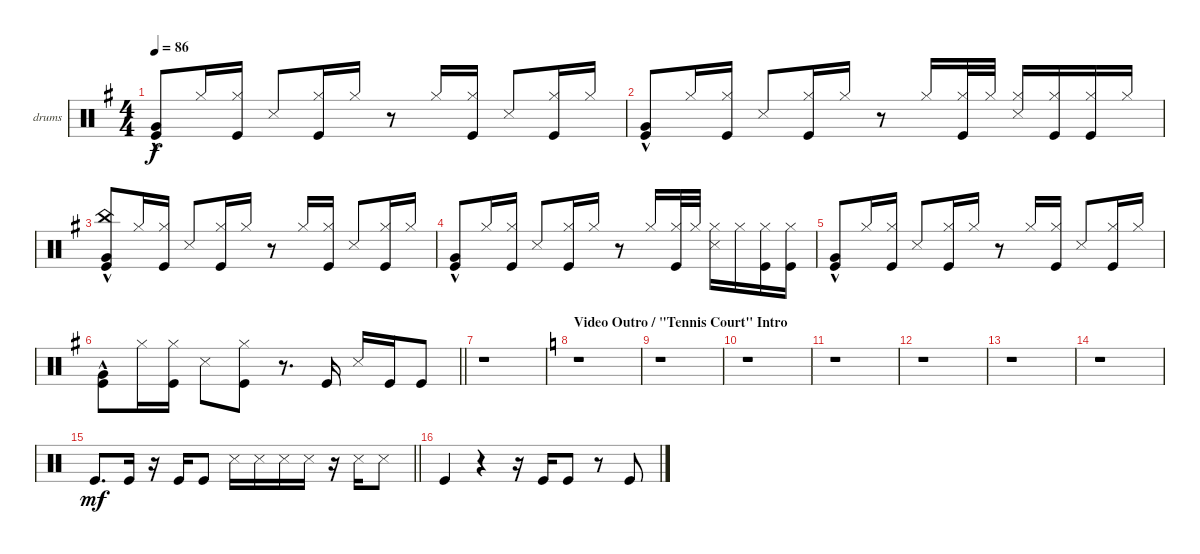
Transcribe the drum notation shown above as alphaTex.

\defaultSystemsLayout 4
\bracketExtendMode groupsimilarinstruments
\firstSystemTrackNameOrientation horizontal
\otherSystemsTrackNameOrientation horizontal
\track ("drums" "drums") {instrument percussion}
\staff {score}
\articulation defaults
\ts (4 4)
\tempo 86
\clef neutral
\ks g
("Kick (hit)" "Very Low Tom (hit)"{hac}).8{dy f} "Hi-Hat (closed)".16 ("Kick (hit)" "Hi-Hat (closed)").16 "Snare (side stick) 3".8{beam invert} ("Kick (hit)" "Hi-Hat (closed)").16 "Hi-Hat (closed)".16 r.8{beam invert} "Hi-Hat (closed)".16 ("Kick (hit)" "Hi-Hat (closed)").16 "Snare (side stick) 3".8{beam invert} ("Kick (hit)" "Hi-Hat (closed)").16 "Hi-Hat (closed)".16 |
("Kick (hit)" "Very Low Tom (hit)"{hac}).8 "Hi-Hat (closed)".16 ("Kick (hit)" "Hi-Hat (closed)").16 "Snare (side stick) 3".8{beam invert} ("Kick (hit)" "Hi-Hat (closed)").16 "Hi-Hat (closed)".16 r.8 "Hi-Hat (closed)".16{beam invert} ("Kick (hit)" "Hi-Hat (closed)").32 "Hi-Hat (closed)".32 ("Snare (side stick) 3" "Hi-Hat (closed)").16{beam invert} ("Kick (hit)" "Hi-Hat (closed)").16 ("Kick (hit)" "Hi-Hat (closed)").16 "Hi-Hat (closed)".16 |
("Kick (hit)" "Very Low Tom (hit)"{hac} "China (hit)").8 "Hi-Hat (closed)".16 ("Kick (hit)" "Hi-Hat (closed)").16 "Snare (side stick) 3".8{beam invert} ("Kick (hit)" "Hi-Hat (closed)").16 "Hi-Hat (closed)".16 r.8{beam invert} "Hi-Hat (closed)".16 ("Kick (hit)" "Hi-Hat (closed)").16 "Snare (side stick) 3".8{beam invert} ("Kick (hit)" "Hi-Hat (closed)").16 "Hi-Hat (closed)".16 |
("Kick (hit)" "Very Low Tom (hit)"{hac}).8 "Hi-Hat (closed)".16 ("Kick (hit)" "Hi-Hat (closed)").16 "Snare (side stick) 3".8{beam invert} ("Kick (hit)" "Hi-Hat (closed)").16 "Hi-Hat (closed)".16 r.8 "Hi-Hat (closed)".16{beam invert} ("Kick (hit)" "Hi-Hat (closed)").32 "Hi-Hat (closed)".32 ("Snare (side stick) 3" "Hi-Hat (closed)").16 "Hi-Hat (closed)".16 ("Kick (hit)" "Hi-Hat (closed)").16 ("Kick (hit)" "Hi-Hat (closed)").16 |
("Kick (hit)" "Very Low Tom (hit)"{hac}).8 "Hi-Hat (closed)".16 ("Kick (hit)" "Hi-Hat (closed)").16 "Snare (side stick) 3".8{beam invert} ("Kick (hit)" "Hi-Hat (closed)").16 "Hi-Hat (closed)".16 r.8{beam invert} "Hi-Hat (closed)".16 ("Kick (hit)" "Hi-Hat (closed)").16 "Snare (side stick) 3".8{beam invert} ("Kick (hit)" "Hi-Hat (closed)").16 "Hi-Hat (closed)".16 |
\barLineRight lightlight
("Kick (hit)" "Very Low Tom (hit)"{hac}).8 "Hi-Hat (closed)".16 ("Kick (hit)" "Hi-Hat (closed)").16 "Snare (side stick) 3".8 ("Kick (hit)" "Hi-Hat (closed)").8 r.8{d} "Kick (hit)".16 "Snare (side stick) 3".16 "Kick (hit)".16 "Kick (hit)".8 |
r.1 |
\section ("" "Video Outro / \"Tennis Court\" Intro")
\ks c
r.1 |
r.1 |
r.1 |
r.1 |
r.1 |
r.1 |
r.1 |
\barLineRight lightlight "Kick (hit)".8{d dy mf} "Kick (hit)".16
r.16 "Kick (hit)".16 "Kick (hit)".8 "Snare (side stick) 3".16 "Snare (side stick) 3".16 "Snare (side stick) 3".16 "Snare (side stick) 3".16 r.16 "Snare (side stick) 3".16 "Snare (side stick) 3".8 |
"Kick (hit)".4 r.4 r.16 "Kick (hit)".16 "Kick (hit)".8 r.8 "Kick (hit)".8
